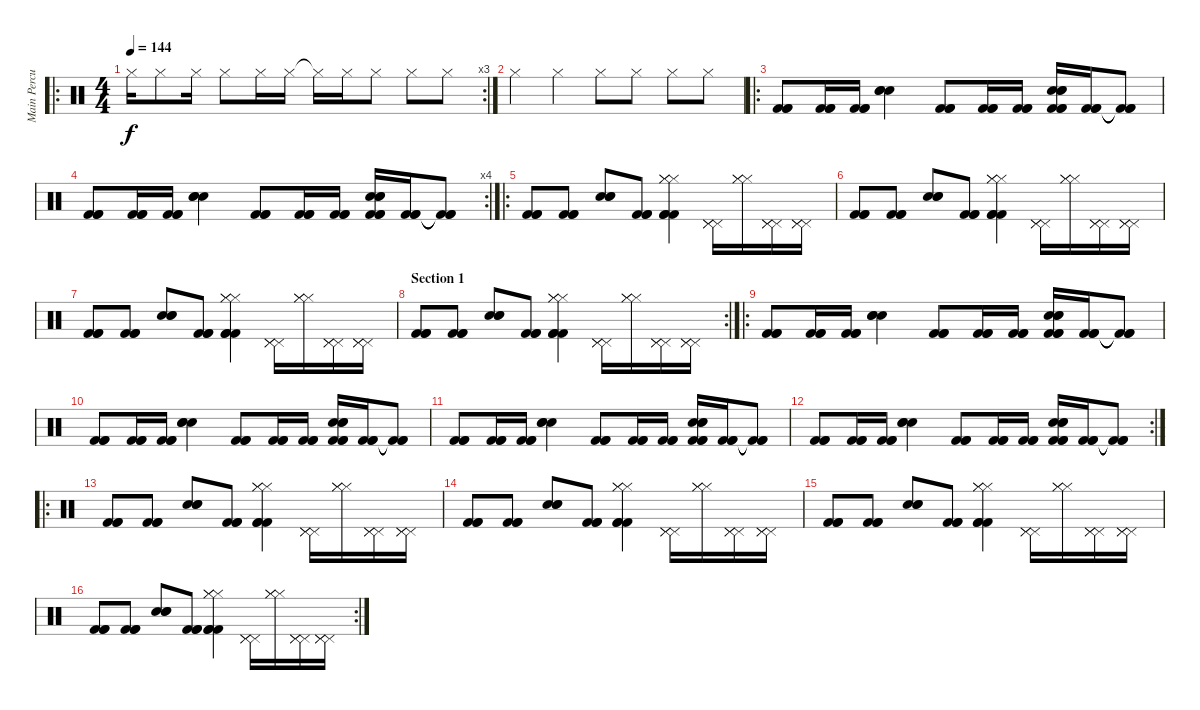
\track ("Main Percussion" "Main Percu") {instrument percussion}
\staff {score}
\articulation defaults
\ro
\rc 3
\ts (4 4)
\tempo 144
\clef neutral
\ks c "Hi-Hat (closed)".16{dy f} "Hi-Hat (closed)".8 "Hi-Hat (closed)".16 "Hi-Hat (closed)".8 "Hi-Hat (closed)".16 "Hi-Hat (closed)".16 "Hi-Hat (closed)"{t}.16 "Hi-Hat (closed)".16 "Hi-Hat (closed)".8 "Hi-Hat (closed)".8 "Hi-Hat (closed)".8
|
"Hi-Hat (closed)".4 "Hi-Hat (closed)".4 "Hi-Hat (closed)".8 "Hi-Hat (closed)".8 "Hi-Hat (closed)".8 "Hi-Hat (closed)".8 |
\ro
("Kick (hit) 2" "Kick (hit) 2" "Kick (hit) 2").8 ("Kick (hit) 2" "Kick (hit) 2" "Kick (hit) 2").16 ("Kick (hit) 2" "Kick (hit) 2" "Kick (hit) 2").16 ("Electric Snare (hit)" "Electric Snare (hit)" "Electric Snare (hit)").4 ("Kick (hit) 2" "Kick (hit) 2" "Kick (hit) 2").8 ("Kick (hit) 2" "Kick (hit) 2" "Kick (hit) 2").16 ("Kick (hit) 2" "Kick (hit) 2" "Kick (hit) 2").16 ("Snare (hit) 2" "Snare (hit) 2" "Snare (hit) 2" "Kick (hit) 2" "Kick (hit) 2" "Kick (hit) 2").16 ("Kick (hit) 2" "Kick (hit) 2" "Kick (hit) 2").16 ("Kick (hit) 2"{t} "Kick (hit) 2"{t} "Kick (hit) 2"{t}).8 |
\rc 4
("Kick (hit) 2" "Kick (hit) 2" "Kick (hit) 2").8 ("Kick (hit) 2" "Kick (hit) 2" "Kick (hit) 2").16 ("Kick (hit) 2" "Kick (hit) 2" "Kick (hit) 2").16 ("Electric Snare (hit)" "Electric Snare (hit)" "Electric Snare (hit)").4 ("Kick (hit) 2" "Kick (hit) 2" "Kick (hit) 2").8 ("Kick (hit) 2" "Kick (hit) 2" "Kick (hit) 2").16 ("Kick (hit) 2" "Kick (hit) 2" "Kick (hit) 2").16 ("Snare (hit) 2" "Snare (hit) 2" "Snare (hit) 2" "Kick (hit) 2" "Kick (hit) 2" "Kick (hit) 2").16 ("Kick (hit) 2" "Kick (hit) 2" "Kick (hit) 2").16 ("Kick (hit) 2"{t} "Kick (hit) 2"{t} "Kick (hit) 2"{t}).8 |
\ro
("Kick (hit) 2" "Kick (hit) 2" "Kick (hit) 2").8 ("Kick (hit) 2" "Kick (hit) 2" "Kick (hit) 2").8 ("Snare (hit) 2" "Snare (hit) 2" "Snare (hit) 2").8 ("Kick (hit) 2" "Kick (hit) 2" "Kick (hit) 2").8 ("Hi-Hat (closed)" "Hi-Hat (closed)" "Hi-Hat (closed)" "Kick (hit) 2" "Kick (hit) 2" "Kick (hit) 2").4 ("Pedal Hi-Hat (hit)" "Pedal Hi-Hat (hit)" "Pedal Hi-Hat (hit)").16 ("Hi-Hat (closed)" "Hi-Hat (closed)" "Hi-Hat (closed)").16 ("Pedal Hi-Hat (hit)" "Pedal Hi-Hat (hit)" "Pedal Hi-Hat (hit)").16 ("Pedal Hi-Hat (hit)" "Pedal Hi-Hat (hit)" "Pedal Hi-Hat (hit)").16 |
("Kick (hit) 2" "Kick (hit) 2" "Kick (hit) 2").8 ("Kick (hit) 2" "Kick (hit) 2" "Kick (hit) 2").8 ("Snare (hit) 2" "Snare (hit) 2" "Snare (hit) 2").8 ("Kick (hit) 2" "Kick (hit) 2" "Kick (hit) 2").8 ("Hi-Hat (closed)" "Hi-Hat (closed)" "Hi-Hat (closed)" "Kick (hit) 2" "Kick (hit) 2" "Kick (hit) 2").4 ("Pedal Hi-Hat (hit)" "Pedal Hi-Hat (hit)" "Pedal Hi-Hat (hit)").16 ("Hi-Hat (closed)" "Hi-Hat (closed)" "Hi-Hat (closed)").16 ("Pedal Hi-Hat (hit)" "Pedal Hi-Hat (hit)" "Pedal Hi-Hat (hit)").16 ("Pedal Hi-Hat (hit)" "Pedal Hi-Hat (hit)" "Pedal Hi-Hat (hit)").16 |
("Kick (hit) 2" "Kick (hit) 2" "Kick (hit) 2").8 ("Kick (hit) 2" "Kick (hit) 2" "Kick (hit) 2").8 ("Snare (hit) 2" "Snare (hit) 2" "Snare (hit) 2").8 ("Kick (hit) 2" "Kick (hit) 2" "Kick (hit) 2").8 ("Hi-Hat (closed)" "Hi-Hat (closed)" "Hi-Hat (closed)" "Kick (hit) 2" "Kick (hit) 2" "Kick (hit) 2").4 ("Pedal Hi-Hat (hit)" "Pedal Hi-Hat (hit)" "Pedal Hi-Hat (hit)").16 ("Hi-Hat (closed)" "Hi-Hat (closed)" "Hi-Hat (closed)").16 ("Pedal Hi-Hat (hit)" "Pedal Hi-Hat (hit)" "Pedal Hi-Hat (hit)").16 ("Pedal Hi-Hat (hit)" "Pedal Hi-Hat (hit)" "Pedal Hi-Hat (hit)").16 |
\rc 2
\section ("" "Section 1")
("Kick (hit) 2" "Kick (hit) 2" "Kick (hit) 2").8 ("Kick (hit) 2" "Kick (hit) 2" "Kick (hit) 2").8 ("Snare (hit) 2" "Snare (hit) 2" "Snare (hit) 2").8 ("Kick (hit) 2" "Kick (hit) 2" "Kick (hit) 2").8 ("Hi-Hat (closed)" "Hi-Hat (closed)" "Hi-Hat (closed)" "Kick (hit) 2" "Kick (hit) 2" "Kick (hit) 2").4 ("Pedal Hi-Hat (hit)" "Pedal Hi-Hat (hit)" "Pedal Hi-Hat (hit)").16 ("Hi-Hat (closed)" "Hi-Hat (closed)" "Hi-Hat (closed)").16 ("Pedal Hi-Hat (hit)" "Pedal Hi-Hat (hit)" "Pedal Hi-Hat (hit)").16 ("Pedal Hi-Hat (hit)" "Pedal Hi-Hat (hit)" "Pedal Hi-Hat (hit)").16 |
\ro
("Kick (hit) 2" "Kick (hit) 2" "Kick (hit) 2").8 ("Kick (hit) 2" "Kick (hit) 2" "Kick (hit) 2").16 ("Kick (hit) 2" "Kick (hit) 2" "Kick (hit) 2").16 ("Electric Snare (hit)" "Electric Snare (hit)" "Electric Snare (hit)").4 ("Kick (hit) 2" "Kick (hit) 2" "Kick (hit) 2").8 ("Kick (hit) 2" "Kick (hit) 2" "Kick (hit) 2").16 ("Kick (hit) 2" "Kick (hit) 2" "Kick (hit) 2").16 ("Snare (hit) 2" "Snare (hit) 2" "Snare (hit) 2" "Kick (hit) 2" "Kick (hit) 2" "Kick (hit) 2").16 ("Kick (hit) 2" "Kick (hit) 2" "Kick (hit) 2").16 ("Kick (hit) 2"{t} "Kick (hit) 2"{t} "Kick (hit) 2"{t}).8 |
("Kick (hit) 2" "Kick (hit) 2" "Kick (hit) 2").8 ("Kick (hit) 2" "Kick (hit) 2" "Kick (hit) 2").16 ("Kick (hit) 2" "Kick (hit) 2" "Kick (hit) 2").16 ("Electric Snare (hit)" "Electric Snare (hit)" "Electric Snare (hit)").4 ("Kick (hit) 2" "Kick (hit) 2" "Kick (hit) 2").8 ("Kick (hit) 2" "Kick (hit) 2" "Kick (hit) 2").16 ("Kick (hit) 2" "Kick (hit) 2" "Kick (hit) 2").16 ("Snare (hit) 2" "Snare (hit) 2" "Snare (hit) 2" "Kick (hit) 2" "Kick (hit) 2" "Kick (hit) 2").16 ("Kick (hit) 2" "Kick (hit) 2" "Kick (hit) 2").16 ("Kick (hit) 2"{t} "Kick (hit) 2"{t} "Kick (hit) 2"{t}).8 |
("Kick (hit) 2" "Kick (hit) 2" "Kick (hit) 2").8 ("Kick (hit) 2" "Kick (hit) 2" "Kick (hit) 2").16 ("Kick (hit) 2" "Kick (hit) 2" "Kick (hit) 2").16 ("Electric Snare (hit)" "Electric Snare (hit)" "Electric Snare (hit)").4 ("Kick (hit) 2" "Kick (hit) 2" "Kick (hit) 2").8 ("Kick (hit) 2" "Kick (hit) 2" "Kick (hit) 2").16 ("Kick (hit) 2" "Kick (hit) 2" "Kick (hit) 2").16 ("Snare (hit) 2" "Snare (hit) 2" "Snare (hit) 2" "Kick (hit) 2" "Kick (hit) 2" "Kick (hit) 2").16 ("Kick (hit) 2" "Kick (hit) 2" "Kick (hit) 2").16 ("Kick (hit) 2"{t} "Kick (hit) 2"{t} "Kick (hit) 2"{t}).8 |
\rc 2
("Kick (hit) 2" "Kick (hit) 2" "Kick (hit) 2").8 ("Kick (hit) 2" "Kick (hit) 2" "Kick (hit) 2").16 ("Kick (hit) 2" "Kick (hit) 2" "Kick (hit) 2").16 ("Electric Snare (hit)" "Electric Snare (hit)" "Electric Snare (hit)").4 ("Kick (hit) 2" "Kick (hit) 2" "Kick (hit) 2").8 ("Kick (hit) 2" "Kick (hit) 2" "Kick (hit) 2").16 ("Kick (hit) 2" "Kick (hit) 2" "Kick (hit) 2").16 ("Snare (hit) 2" "Snare (hit) 2" "Snare (hit) 2" "Kick (hit) 2" "Kick (hit) 2" "Kick (hit) 2").16 ("Kick (hit) 2" "Kick (hit) 2" "Kick (hit) 2").16 ("Kick (hit) 2"{t} "Kick (hit) 2"{t} "Kick (hit) 2"{t}).8 |
\ro
("Kick (hit) 2" "Kick (hit) 2" "Kick (hit) 2").8 ("Kick (hit) 2" "Kick (hit) 2" "Kick (hit) 2").8 ("Snare (hit) 2" "Snare (hit) 2" "Snare (hit) 2").8 ("Kick (hit) 2" "Kick (hit) 2" "Kick (hit) 2").8 ("Hi-Hat (closed)" "Hi-Hat (closed)" "Hi-Hat (closed)" "Kick (hit) 2" "Kick (hit) 2" "Kick (hit) 2").4 ("Pedal Hi-Hat (hit)" "Pedal Hi-Hat (hit)" "Pedal Hi-Hat (hit)").16 ("Hi-Hat (closed)" "Hi-Hat (closed)" "Hi-Hat (closed)").16 ("Pedal Hi-Hat (hit)" "Pedal Hi-Hat (hit)" "Pedal Hi-Hat (hit)").16 ("Pedal Hi-Hat (hit)" "Pedal Hi-Hat (hit)" "Pedal Hi-Hat (hit)").16 |
("Kick (hit) 2" "Kick (hit) 2" "Kick (hit) 2").8 ("Kick (hit) 2" "Kick (hit) 2" "Kick (hit) 2").8 ("Snare (hit) 2" "Snare (hit) 2" "Snare (hit) 2").8 ("Kick (hit) 2" "Kick (hit) 2" "Kick (hit) 2").8 ("Hi-Hat (closed)" "Hi-Hat (closed)" "Hi-Hat (closed)" "Kick (hit) 2" "Kick (hit) 2" "Kick (hit) 2").4 ("Pedal Hi-Hat (hit)" "Pedal Hi-Hat (hit)" "Pedal Hi-Hat (hit)").16 ("Hi-Hat (closed)" "Hi-Hat (closed)" "Hi-Hat (closed)").16 ("Pedal Hi-Hat (hit)" "Pedal Hi-Hat (hit)" "Pedal Hi-Hat (hit)").16 ("Pedal Hi-Hat (hit)" "Pedal Hi-Hat (hit)" "Pedal Hi-Hat (hit)").16 |
("Kick (hit) 2" "Kick (hit) 2" "Kick (hit) 2").8 ("Kick (hit) 2" "Kick (hit) 2" "Kick (hit) 2").8 ("Snare (hit) 2" "Snare (hit) 2" "Snare (hit) 2").8 ("Kick (hit) 2" "Kick (hit) 2" "Kick (hit) 2").8 ("Hi-Hat (closed)" "Hi-Hat (closed)" "Hi-Hat (closed)" "Kick (hit) 2" "Kick (hit) 2" "Kick (hit) 2").4 ("Pedal Hi-Hat (hit)" "Pedal Hi-Hat (hit)" "Pedal Hi-Hat (hit)").16 ("Hi-Hat (closed)" "Hi-Hat (closed)" "Hi-Hat (closed)").16 ("Pedal Hi-Hat (hit)" "Pedal Hi-Hat (hit)" "Pedal Hi-Hat (hit)").16 ("Pedal Hi-Hat (hit)" "Pedal Hi-Hat (hit)" "Pedal Hi-Hat (hit)").16 |
\rc 2
("Kick (hit) 2" "Kick (hit) 2" "Kick (hit) 2").8 ("Kick (hit) 2" "Kick (hit) 2" "Kick (hit) 2").8 ("Snare (hit) 2" "Snare (hit) 2" "Snare (hit) 2").8 ("Kick (hit) 2" "Kick (hit) 2" "Kick (hit) 2").8 ("Hi-Hat (closed)" "Hi-Hat (closed)" "Hi-Hat (closed)" "Kick (hit) 2" "Kick (hit) 2" "Kick (hit) 2").4 ("Pedal Hi-Hat (hit)" "Pedal Hi-Hat (hit)" "Pedal Hi-Hat (hit)").16 ("Hi-Hat (closed)" "Hi-Hat (closed)" "Hi-Hat (closed)").16 ("Pedal Hi-Hat (hit)" "Pedal Hi-Hat (hit)" "Pedal Hi-Hat (hit)").16 ("Pedal Hi-Hat (hit)" "Pedal Hi-Hat (hit)" "Pedal Hi-Hat (hit)").16
